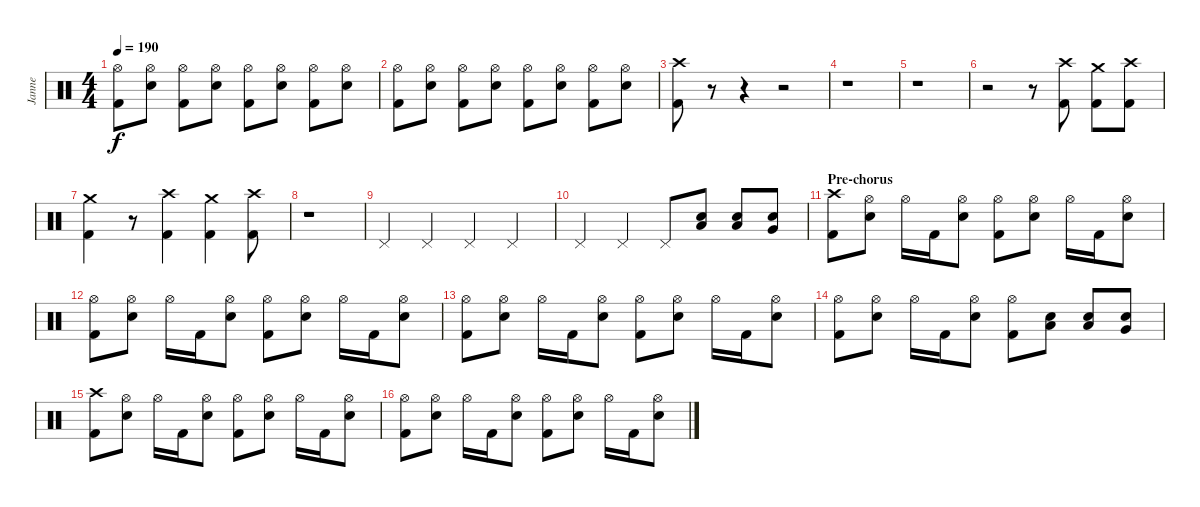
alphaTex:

\track ("Janne" "Janne") {instrument percussion}
\staff {score}
\articulation defaults
\ts (4 4)
\tempo 190
\clef neutral
\ks c
("Hi-Hat (open)" "Kick (hit) 2").8{dy f} ("Hi-Hat (open)" "Electric Snare (hit)").8 ("Hi-Hat (open)" "Kick (hit) 2").8 ("Hi-Hat (open)" "Electric Snare (hit)").8 ("Hi-Hat (open)" "Kick (hit) 2").8 ("Hi-Hat (open)" "Electric Snare (hit)").8 ("Hi-Hat (open)" "Kick (hit) 2").8 ("Hi-Hat (open)" "Electric Snare (hit)").8 |
("Hi-Hat (open)" "Kick (hit) 2").8 ("Hi-Hat (open)" "Electric Snare (hit)").8 ("Hi-Hat (open)" "Kick (hit) 2").8 ("Hi-Hat (open)" "Electric Snare (hit)").8 ("Hi-Hat (open)" "Kick (hit) 2").8 ("Hi-Hat (open)" "Electric Snare (hit)").8 ("Hi-Hat (open)" "Kick (hit) 2").8 ("Hi-Hat (open)" "Electric Snare (hit)").8 |
("Crash high (hit)" "Kick (hit) 2").8 r.8 r.4 r.2 |
r.1 |
r.1 |
r.2 r.8 ("Crash high (hit)" "Kick (hit) 2").8 ("Crash medium (hit)" "Kick (hit) 2").8 ("Crash high (hit)" "Kick (hit) 2").8 |
("Crash medium (hit)" "Kick (hit) 2").4 r.8 ("Crash high (hit)" "Kick (hit) 2").4 ("Crash medium (hit)" "Kick (hit) 2").4 ("Crash high (hit)" "Kick (hit) 2").8 |
r.1 |
"Pedal Hi-Hat (hit)".4 "Pedal Hi-Hat (hit)".4 "Pedal Hi-Hat (hit)".4 "Pedal Hi-Hat (hit)".4 |
"Pedal Hi-Hat (hit)".4 "Pedal Hi-Hat (hit)".4 "Pedal Hi-Hat (hit)".8 ("Low Tom (hit)" "Electric Snare (hit)").8 ("Low Tom (hit)" "Electric Snare (hit)").8 ("Very Low Tom (hit)" "Electric Snare (hit)").8 |
\section ("" "Pre-chorus")
("Crash high (hit)" "Kick (hit) 2").8 ("Hi-Hat (open)" "Electric Snare (hit)").8 "Hi-Hat (open)".16 "Kick (hit) 2".16 ("Hi-Hat (open)" "Electric Snare (hit)").8 ("Hi-Hat (open)" "Kick (hit) 2").8 ("Hi-Hat (open)" "Electric Snare (hit)").8 "Hi-Hat (open)".16 "Kick (hit) 2".16 ("Hi-Hat (open)" "Electric Snare (hit)").8 |
("Hi-Hat (open)" "Kick (hit) 2").8 ("Hi-Hat (open)" "Electric Snare (hit)").8 "Hi-Hat (open)".16 "Kick (hit) 2".16 ("Hi-Hat (open)" "Electric Snare (hit)").8 ("Hi-Hat (open)" "Kick (hit) 2").8 ("Hi-Hat (open)" "Electric Snare (hit)").8 "Hi-Hat (open)".16 "Kick (hit) 2".16 ("Hi-Hat (open)" "Electric Snare (hit)").8 |
("Hi-Hat (open)" "Kick (hit) 2").8 ("Hi-Hat (open)" "Electric Snare (hit)").8 "Hi-Hat (open)".16 "Kick (hit) 2".16 ("Hi-Hat (open)" "Electric Snare (hit)").8 ("Hi-Hat (open)" "Kick (hit) 2").8 ("Hi-Hat (open)" "Electric Snare (hit)").8 "Hi-Hat (open)".16 "Kick (hit) 2".16 ("Hi-Hat (open)" "Electric Snare (hit)").8 |
("Hi-Hat (open)" "Kick (hit) 2").8 ("Hi-Hat (open)" "Electric Snare (hit)").8 "Hi-Hat (open)".16 "Kick (hit) 2".16 ("Hi-Hat (open)" "Electric Snare (hit)").8 ("Hi-Hat (open)" "Kick (hit) 2").8 ("Low Tom (hit)" "Electric Snare (hit)").8 ("Low Tom (hit)" "Electric Snare (hit)").8 ("Very Low Tom (hit)" "Electric Snare (hit)").8 |
("Crash high (hit)" "Kick (hit) 2").8 ("Hi-Hat (open)" "Electric Snare (hit)").8 "Hi-Hat (open)".16 "Kick (hit) 2".16 ("Hi-Hat (open)" "Electric Snare (hit)").8 ("Hi-Hat (open)" "Kick (hit) 2").8 ("Hi-Hat (open)" "Electric Snare (hit)").8 "Hi-Hat (open)".16 "Kick (hit) 2".16 ("Hi-Hat (open)" "Electric Snare (hit)").8 |
("Hi-Hat (open)" "Kick (hit) 2").8 ("Hi-Hat (open)" "Electric Snare (hit)").8 "Hi-Hat (open)".16 "Kick (hit) 2".16 ("Hi-Hat (open)" "Electric Snare (hit)").8 ("Hi-Hat (open)" "Kick (hit) 2").8 ("Hi-Hat (open)" "Electric Snare (hit)").8 "Hi-Hat (open)".16 "Kick (hit) 2".16 ("Hi-Hat (open)" "Electric Snare (hit)").8
